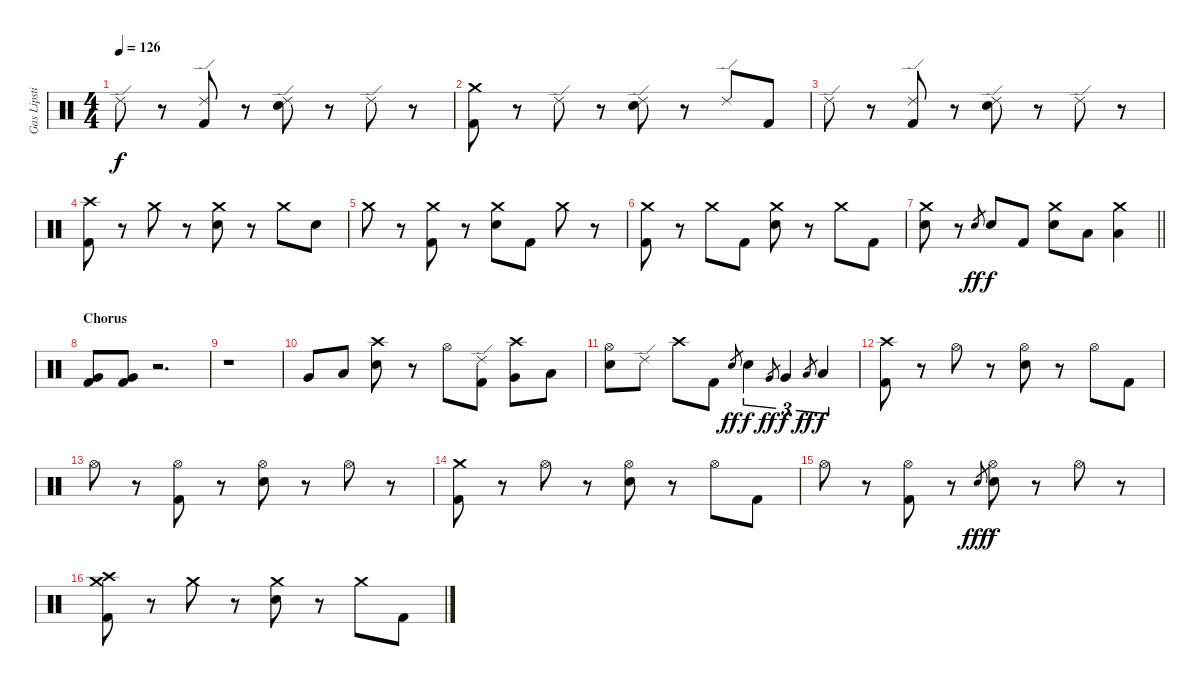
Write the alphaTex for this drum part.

\track ("Gas Lipstick (Drums)" "Gas Lipsti") {instrument percussion}
\staff {score}
\articulation defaults
\ts (4 4)
\tempo 126
\clef neutral
\ks c "Ride (edge) 2".8{dy f}
r.8 ("Ride (edge) 2" "Kick (hit) 2").8 r.8 ("Ride (edge) 2" "Snare (hit) 2").8 r.8 "Ride (edge) 2".8 r.8 |
("Crash medium (hit)" "Kick (hit) 2").8 r.8 "Ride (edge) 2".8 r.8 ("Ride (edge) 2" "Snare (hit) 2").8 r.8 "Ride (edge) 2".8 "Kick (hit) 2".8 |
"Ride (edge) 2".8 r.8 ("Ride (edge) 2" "Kick (hit) 2").8 r.8 ("Ride (edge) 2" "Snare (hit) 2").8 r.8 "Ride (edge) 2".8 r.8 |
("Crash high (hit)" "Kick (hit) 2").8 r.8 "Crash medium (hit)".8 r.8 ("Crash medium (hit)" "Snare (hit) 2").8 r.8 "Crash medium (hit)".8 "Snare (hit) 2".8 |
"Crash medium (hit)".8 r.8 ("Crash medium (hit)" "Kick (hit) 2").8 r.8 ("Crash medium (hit)" "Snare (hit) 2").8 "Kick (hit) 2".8 "Crash medium (hit)".8 r.8 |
("Crash medium (hit)" "Kick (hit) 2").8 r.8 "Crash medium (hit)".8 "Kick (hit) 2".8 ("Crash medium (hit)" "Snare (hit) 2").8 r.8 "Crash medium (hit)".8 "Kick (hit) 2".8 |
\barLineRight lightlight
("Crash medium (hit)" "Snare (hit) 2").8 r.8 "Snare (hit) 2".8{gr dy ff} "Snare (hit) 2".8{dy f} "Kick (hit) 2".8 ("Crash medium (hit)" "Snare (hit) 2").8 "Low Floor Tom (hit)".8 ("Crash medium (hit)" "Low Floor Tom (hit)").4 |
\section ("" "Chorus")
("Very Low Tom (hit)" "Kick (hit) 2").8 ("Very Low Tom (hit)" "Kick (hit) 2").8 r.2{d} |
r.1 |
"Very Low Tom (hit)".8 "Low Floor Tom (hit)".8 ("Crash high (hit)" "Snare (hit) 2").8 r.8 "Hi-Hat (open)".8 ("Ride (edge) 2" "Kick (hit) 2").8 ("Crash high (hit)" "Very Low Tom (hit)").8 "Low Floor Tom (hit)".8 |
("Hi-Hat (open)" "Snare (hit) 2").8 "Ride (edge) 2".8 "Crash high (hit)".8 "Kick (hit) 2".8 "Snare (hit) 2".8{gr dy ff} "Snare (hit) 2".4{tu (3 2) dy f} "Very Low Tom (hit)".8{gr dy ff} "Very Low Tom (hit)".4{tu (3 2) dy f} "Low Floor Tom (hit)".8{gr dy ff} "Low Floor Tom (hit)".4{tu (3 2) dy f} |
("Crash high (hit)" "Kick (hit) 2").8 r.8 "Hi-Hat (open)".8 r.8 ("Hi-Hat (open)" "Snare (hit) 2").8 r.8 "Hi-Hat (open)".8 "Kick (hit) 2".8 |
"Hi-Hat (open)".8 r.8 ("Hi-Hat (open)" "Kick (hit) 2").8 r.8 ("Hi-Hat (open)" "Snare (hit) 2").8 r.8 "Hi-Hat (open)".8 r.8 |
("Crash medium (hit)" "Kick (hit) 2").8 r.8 "Hi-Hat (open)".8 r.8 ("Hi-Hat (open)" "Snare (hit) 2").8 r.8 "Hi-Hat (open)".8 "Kick (hit) 2".8 |
"Hi-Hat (open)".8 r.8 ("Hi-Hat (open)" "Kick (hit) 2").8 r.8 "Snare (hit) 2".8{gr dy fff} ("Hi-Hat (open)" "Snare (hit) 2").8{dy f} r.8 "Hi-Hat (open)".8 r.8 |
("Crash high (hit)" "Crash medium (hit)" "Kick (hit) 2").8 r.8 "Crash medium (hit)".8 r.8 ("Crash medium (hit)" "Snare (hit) 2").8 r.8 "Crash medium (hit)".8 "Kick (hit) 2".8
